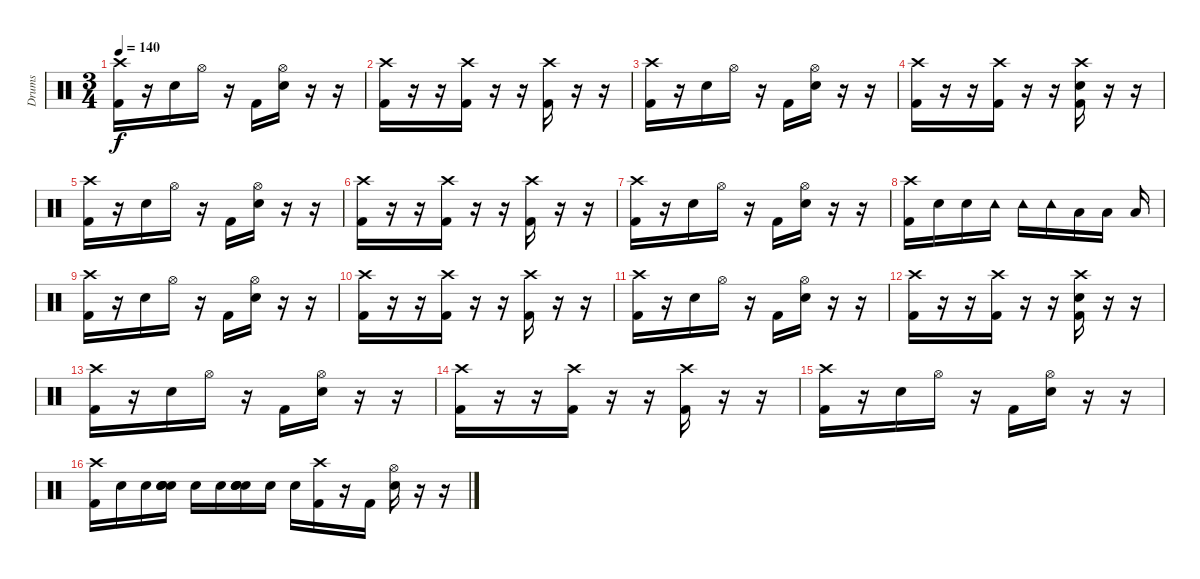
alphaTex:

\track ("Drums" "Drums") {instrument percussion}
\staff {score}
\articulation defaults
\ts (3 4)
\tempo 140
\clef neutral
\ks c
("Crash high (hit)" "Kick (hit) 2").16{dy f} r.16 "Snare (hit) 2".16 "Hi-Hat (open)".16 r.16 "Kick (hit) 2".16 ("Hi-Hat (open)" "Snare (hit) 2").16 r.16 r.16 |
("Crash high (hit)" "Kick (hit) 2").16 r.16 r.16 ("Crash high (hit)" "Kick (hit) 2").16 r.16 r.16 ("Crash high (hit)" "Kick (hit) 2").16 r.16 r.16 |
("Crash high (hit)" "Kick (hit) 2").16 r.16 "Snare (hit) 2".16 "Hi-Hat (open)".16 r.16 "Kick (hit) 2".16 ("Hi-Hat (open)" "Snare (hit) 2").16 r.16 r.16 |
("Crash high (hit)" "Kick (hit) 2").16 r.16 r.16 ("Crash high (hit)" "Kick (hit) 2").16 r.16 r.16 ("Crash high (hit)" "Snare (hit) 2" "Kick (hit) 2").16 r.16 r.16 |
("Crash high (hit)" "Kick (hit) 2").16 r.16 "Snare (hit) 2".16 "Hi-Hat (open)".16 r.16 "Kick (hit) 2".16 ("Hi-Hat (open)" "Snare (hit) 2").16 r.16 r.16 |
("Crash high (hit)" "Kick (hit) 2").16 r.16 r.16 ("Crash high (hit)" "Kick (hit) 2").16 r.16 r.16 ("Crash high (hit)" "Kick (hit) 2").16 r.16 r.16 |
("Crash high (hit)" "Kick (hit) 2").16 r.16 "Snare (hit) 2".16 "Hi-Hat (open)".16 r.16 "Kick (hit) 2".16 ("Hi-Hat (open)" "Snare (hit) 2").16 r.16 r.16 |
("Crash high (hit)" "Kick (hit) 2").16 "Snare (hit) 2".16 "Snare (hit) 2".16 "Tambourine (hit)".16 "Tambourine (hit)".16 "Tambourine (hit)".16 "Low Floor Tom (hit)".16 "Low Floor Tom (hit)".16 "Low Floor Tom (hit)".16 |
("Crash high (hit)" "Kick (hit) 2").16 r.16 "Snare (hit) 2".16 "Hi-Hat (open)".16 r.16 "Kick (hit) 2".16 ("Hi-Hat (open)" "Snare (hit) 2").16 r.16 r.16 |
("Crash high (hit)" "Kick (hit) 2").16 r.16 r.16 ("Crash high (hit)" "Kick (hit) 2").16 r.16 r.16 ("Crash high (hit)" "Kick (hit) 2").16 r.16 r.16 |
("Crash high (hit)" "Kick (hit) 2").16 r.16 "Snare (hit) 2".16 "Hi-Hat (open)".16 r.16 "Kick (hit) 2".16 ("Hi-Hat (open)" "Snare (hit) 2").16 r.16 r.16 |
("Crash high (hit)" "Kick (hit) 2").16 r.16 r.16 ("Crash high (hit)" "Kick (hit) 2").16 r.16 r.16 ("Crash high (hit)" "Snare (hit) 2" "Kick (hit) 2").16 r.16 r.16 |
("Crash high (hit)" "Kick (hit) 2").16 r.16 "Snare (hit) 2".16 "Hi-Hat (open)".16 r.16 "Kick (hit) 2".16 ("Hi-Hat (open)" "Snare (hit) 2").16 r.16 r.16 |
("Crash high (hit)" "Kick (hit) 2").16 r.16 r.16 ("Crash high (hit)" "Kick (hit) 2").16 r.16 r.16 ("Crash high (hit)" "Kick (hit) 2").16 r.16 r.16 |
("Crash high (hit)" "Kick (hit) 2").16 r.16 "Snare (hit) 2".16 "Hi-Hat (open)".16 r.16 "Kick (hit) 2".16 ("Hi-Hat (open)" "Snare (hit) 2").16 r.16 r.16 |
("Crash high (hit)" "Kick (hit) 2").16 "Snare (hit) 2".16 "Snare (hit) 2".16 ("Snare (hit) 2" "Snare (hit) 2" "Snare (hit) 2" "Snare (hit) 2").16 "Snare (hit) 2".16 "Snare (hit) 2".16 ("Snare (hit) 2" "Snare (hit) 2" "Snare (hit) 2" "Snare (hit) 2").16 "Snare (hit) 2".16 "Snare (hit) 2".16 ("Crash high (hit)" "Kick (hit) 2").16 r.16 "Kick (hit) 2".16 ("Hi-Hat (open)" "Snare (hit) 2").16 r.16 r.16
